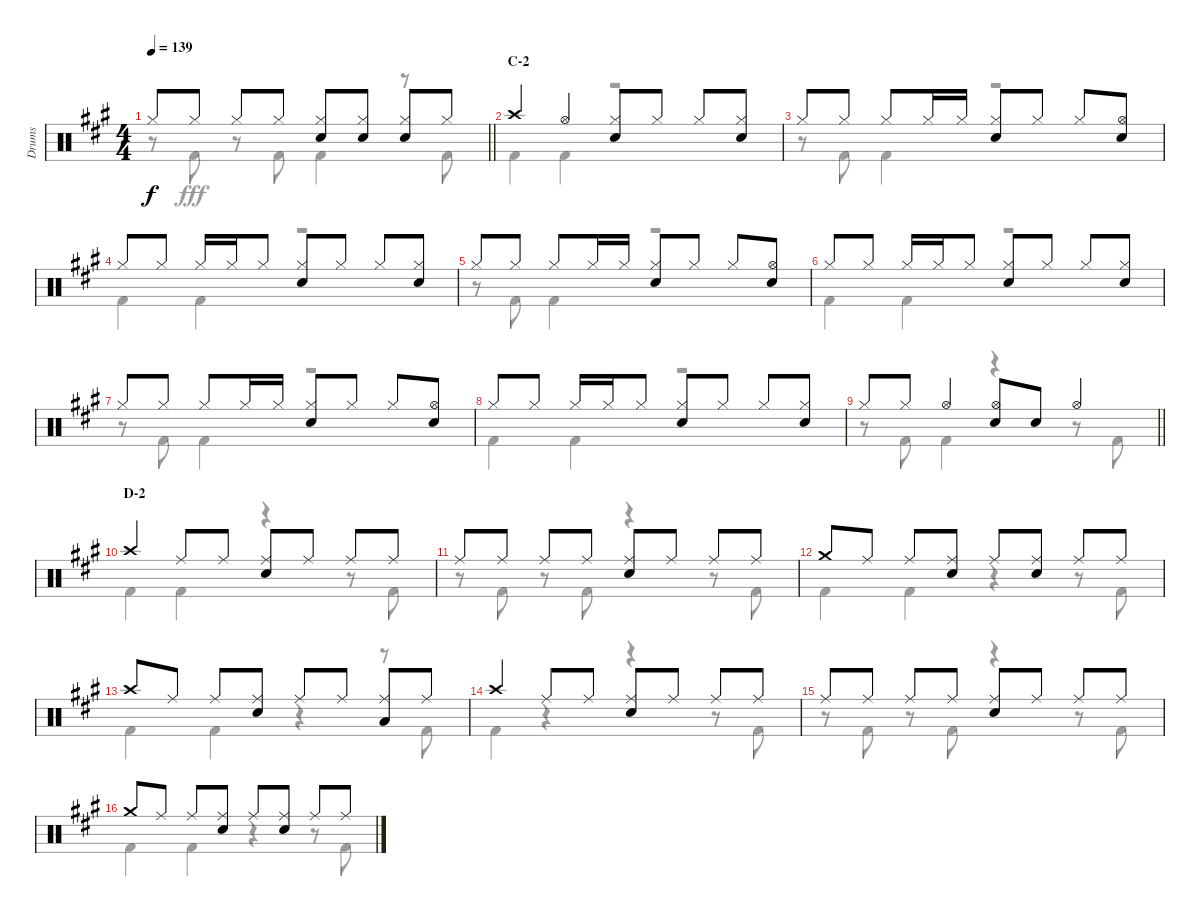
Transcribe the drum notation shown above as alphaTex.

\track ("Drums" "Drums") {instrument percussion}
\staff {score}
\articulation defaults
\voice
\ts (4 4)
\tempo 139
\clef neutral
\barLineRight lightlight
\ks a "Hi-Hat (closed)".8{dy f} "Hi-Hat (closed)".8 "Hi-Hat (closed)".8 "Hi-Hat (closed)".8
("Hi-Hat (closed)" "Snare (hit) 2").8 ("Hi-Hat (closed)" "Snare (hit) 2").8 ("Hi-Hat (closed)" "Snare (hit) 2").8 "Hi-Hat (closed)".8 |
\section ("" "C-2")
"Crash high (hit)".4 "Hi-Hat (open)".4 ("Hi-Hat (closed)" "Snare (hit) 2").8 "Hi-Hat (closed)".8 "Hi-Hat (closed)".8 ("Hi-Hat (closed)" "Snare (hit) 2").8 |
"Hi-Hat (closed)".8 "Hi-Hat (closed)".8 "Hi-Hat (closed)".8 "Hi-Hat (closed)".16 "Hi-Hat (closed)".16 ("Hi-Hat (closed)" "Snare (hit) 2").8 "Hi-Hat (closed)".8 "Hi-Hat (closed)".8 ("Hi-Hat (open)" "Snare (hit) 2").8 |
"Hi-Hat (closed)".8 "Hi-Hat (closed)".8 "Hi-Hat (closed)".16 "Hi-Hat (closed)".16 "Hi-Hat (closed)".8 ("Hi-Hat (closed)" "Snare (hit) 2").8 "Hi-Hat (closed)".8 "Hi-Hat (closed)".8 ("Hi-Hat (closed)" "Snare (hit) 2").8 |
"Hi-Hat (closed)".8 "Hi-Hat (closed)".8 "Hi-Hat (closed)".8 "Hi-Hat (closed)".16 "Hi-Hat (closed)".16 ("Hi-Hat (closed)" "Snare (hit) 2").8 "Hi-Hat (closed)".8 "Hi-Hat (closed)".8 ("Hi-Hat (open)" "Snare (hit) 2").8 |
"Hi-Hat (closed)".8 "Hi-Hat (closed)".8 "Hi-Hat (closed)".16 "Hi-Hat (closed)".16 "Hi-Hat (closed)".8 ("Hi-Hat (closed)" "Snare (hit) 2").8 "Hi-Hat (closed)".8 "Hi-Hat (closed)".8 ("Hi-Hat (closed)" "Snare (hit) 2").8 |
"Hi-Hat (closed)".8 "Hi-Hat (closed)".8 "Hi-Hat (closed)".8 "Hi-Hat (closed)".16 "Hi-Hat (closed)".16 ("Hi-Hat (closed)" "Snare (hit) 2").8 "Hi-Hat (closed)".8 "Hi-Hat (closed)".8 ("Hi-Hat (open)" "Snare (hit) 2").8 |
"Hi-Hat (closed)".8 "Hi-Hat (closed)".8 "Hi-Hat (closed)".16 "Hi-Hat (closed)".16 "Hi-Hat (closed)".8 ("Hi-Hat (closed)" "Snare (hit) 2").8 "Hi-Hat (closed)".8 "Hi-Hat (closed)".8 ("Hi-Hat (closed)" "Snare (hit) 2").8 |
\barLineRight lightlight "Hi-Hat (closed)".8 "Hi-Hat (closed)".8 "Hi-Hat (open)".4
("Hi-Hat (open)" "Snare (hit) 2").8 "Snare (hit) 2".8 "Hi-Hat (open)".4 |
\section ("" "D-2")
"Crash high (hit)".4 "Ride (middle)".8 "Ride (middle)".8 ("Ride (middle)" "Snare (hit) 2").8 "Ride (middle)".8 "Ride (middle)".8 "Ride (middle)".8 |
"Ride (middle)".8 "Ride (middle)".8 "Ride (middle)".8 "Ride (middle)".8 ("Ride (middle)" "Snare (hit) 2").8 "Ride (middle)".8 "Ride (middle)".8 "Ride (middle)".8 |
"Crash medium (hit)".8 "Ride (middle)".8 "Ride (middle)".8 ("Ride (middle)" "Snare (hit) 2").8 "Ride (middle)".8 ("Ride (middle)" "Snare (hit) 2").8 "Ride (middle)".8 "Ride (middle)".8 |
"Crash high (hit)".8 "Ride (middle)".8 "Ride (middle)".8 ("Ride (middle)" "Snare (hit) 2").8 "Ride (middle)".8 "Ride (middle)".8 ("Ride (middle)" "Low Tom (hit)").8 "Ride (middle)".8 |
"Crash high (hit)".4 "Ride (middle)".8 "Ride (middle)".8 ("Ride (middle)" "Snare (hit) 2").8 "Ride (middle)".8 "Ride (middle)".8 "Ride (middle)".8 |
"Ride (middle)".8 "Ride (middle)".8 "Ride (middle)".8 "Ride (middle)".8 ("Ride (middle)" "Snare (hit) 2").8 "Ride (middle)".8 "Ride (middle)".8 "Ride (middle)".8 |
"Crash medium (hit)".8 "Ride (middle)".8 "Ride (middle)".8 ("Ride (middle)" "Snare (hit) 2").8 "Ride (middle)".8 ("Ride (middle)" "Snare (hit) 2").8 "Ride (middle)".8 "Ride (middle)".8
\voice
\clef neutral
\ottava regular
\simile none
\barLineRight lightlight
\ks a
r.8{dy fff} "Kick (hit) 2".8 r.8 "Kick (hit) 2".8 "Kick (hit) 2".4 r.8 "Kick (hit) 2".8 |
"Kick (hit) 2".4 "Kick (hit) 2".4 r.2 |
r.8 "Kick (hit) 2".8 "Kick (hit) 2".4 r.2 |
"Kick (hit) 2".4 "Kick (hit) 2".4 r.2 |
r.8 "Kick (hit) 2".8 "Kick (hit) 2".4 r.2 |
"Kick (hit) 2".4 "Kick (hit) 2".4 r.2 |
r.8 "Kick (hit) 2".8 "Kick (hit) 2".4 r.2 |
"Kick (hit) 2".4 "Kick (hit) 2".4 r.2 |
\barLineRight lightlight
r.8 "Kick (hit) 2".8 "Kick (hit) 2".4 r.4 r.8 "Kick (hit) 2".8 |
"Kick (hit) 2".4 "Kick (hit) 2".4 r.4 r.8 "Kick (hit) 2".8 |
r.8 "Kick (hit) 2".8 r.8 "Kick (hit) 2".8 r.4 r.8 "Kick (hit) 2".8 |
"Kick (hit) 2".4 "Kick (hit) 2".4 r.4 r.8 "Kick (hit) 2".8 |
"Kick (hit) 2".4 "Kick (hit) 2".4 r.4 r.8 "Kick (hit) 2".8 |
"Kick (hit) 2".4 r.4 r.4 r.8 "Kick (hit) 2".8 |
r.8 "Kick (hit) 2".8 r.8 "Kick (hit) 2".8 r.4 r.8 "Kick (hit) 2".8 |
"Kick (hit) 2".4 "Kick (hit) 2".4 r.4 r.8 "Kick (hit) 2".8
